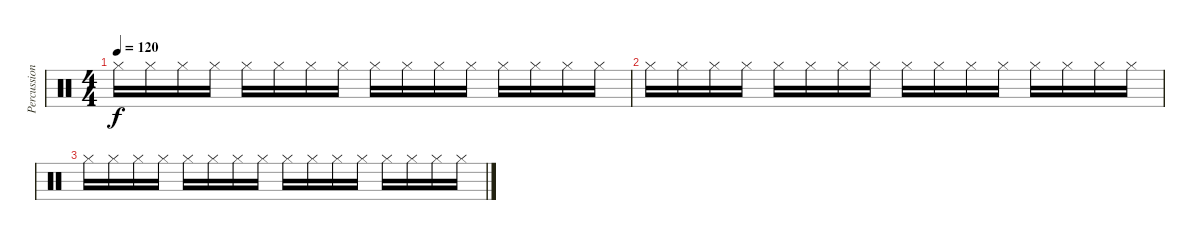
\track ("Percussion" "Percussion") {instrument percussion}
\staff {score}
\articulation defaults
\ts (4 4)
\tempo 120
\clef neutral
\ks c "Hi-Hat (closed)".16{dy f} "Hi-Hat (closed)".16 "Hi-Hat (closed)".16 "Hi-Hat (closed)".16 "Hi-Hat (closed)".16 "Hi-Hat (closed)".16 "Hi-Hat (closed)".16 "Hi-Hat (closed)".16 "Hi-Hat (closed)".16 "Hi-Hat (closed)".16 "Hi-Hat (closed)".16 "Hi-Hat (closed)".16 "Hi-Hat (closed)".16 "Hi-Hat (closed)".16 "Hi-Hat (closed)".16 "Hi-Hat (closed)".16
|
"Hi-Hat (closed)".16 "Hi-Hat (closed)".16 "Hi-Hat (closed)".16 "Hi-Hat (closed)".16 "Hi-Hat (closed)".16 "Hi-Hat (closed)".16 "Hi-Hat (closed)".16 "Hi-Hat (closed)".16 "Hi-Hat (closed)".16 "Hi-Hat (closed)".16 "Hi-Hat (closed)".16 "Hi-Hat (closed)".16 "Hi-Hat (closed)".16 "Hi-Hat (closed)".16 "Hi-Hat (closed)".16 "Hi-Hat (closed)".16 |
"Hi-Hat (closed)".16 "Hi-Hat (closed)".16 "Hi-Hat (closed)".16 "Hi-Hat (closed)".16 "Hi-Hat (closed)".16 "Hi-Hat (closed)".16 "Hi-Hat (closed)".16 "Hi-Hat (closed)".16 "Hi-Hat (closed)".16 "Hi-Hat (closed)".16 "Hi-Hat (closed)".16 "Hi-Hat (closed)".16 "Hi-Hat (closed)".16 "Hi-Hat (closed)".16 "Hi-Hat (closed)".16 "Hi-Hat (closed)".16
